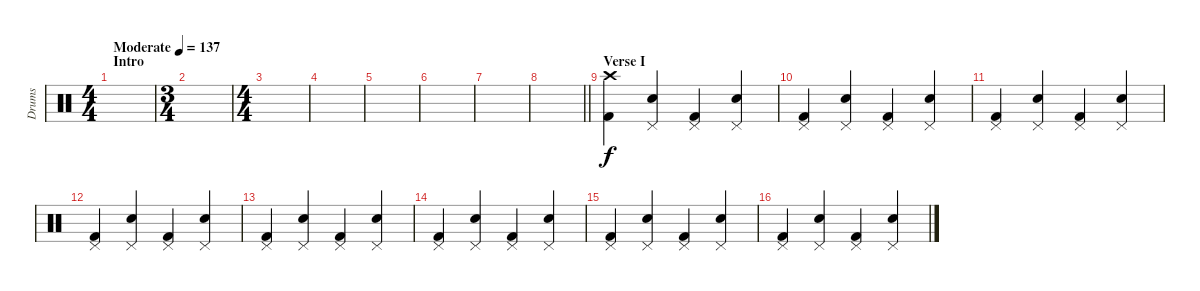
\track ("Drums" "Drums") {instrument percussion}
\staff {score}
\articulation defaults
\ts (4 4)
\section ("" "Intro")
\tempo (137 "Moderate")
\clef neutral
\ks c
|
\ts (3 4)
|
\ts (4 4)
|
|
|
|
|
\barLineRight lightlight
|
\section ("" "Verse I")
("Crash high (hit)" "Kick (hit) 2").4 ("Pedal Hi-Hat (hit)" "Electric Snare (hit)").4 ("Pedal Hi-Hat (hit)" "Kick (hit) 2").4 ("Pedal Hi-Hat (hit)" "Electric Snare (hit)").4 |
("Pedal Hi-Hat (hit)" "Kick (hit) 2").4 ("Pedal Hi-Hat (hit)" "Electric Snare (hit)").4 ("Pedal Hi-Hat (hit)" "Kick (hit) 2").4 ("Pedal Hi-Hat (hit)" "Electric Snare (hit)").4 |
("Pedal Hi-Hat (hit)" "Kick (hit) 2").4 ("Pedal Hi-Hat (hit)" "Electric Snare (hit)").4 ("Pedal Hi-Hat (hit)" "Kick (hit) 2").4 ("Pedal Hi-Hat (hit)" "Electric Snare (hit)").4 |
("Pedal Hi-Hat (hit)" "Kick (hit) 2").4 ("Pedal Hi-Hat (hit)" "Electric Snare (hit)").4 ("Pedal Hi-Hat (hit)" "Kick (hit) 2").4 ("Pedal Hi-Hat (hit)" "Electric Snare (hit)").4 |
("Pedal Hi-Hat (hit)" "Kick (hit) 2").4 ("Pedal Hi-Hat (hit)" "Electric Snare (hit)").4 ("Pedal Hi-Hat (hit)" "Kick (hit) 2").4 ("Pedal Hi-Hat (hit)" "Electric Snare (hit)").4 |
("Pedal Hi-Hat (hit)" "Kick (hit) 2").4 ("Pedal Hi-Hat (hit)" "Electric Snare (hit)").4 ("Pedal Hi-Hat (hit)" "Kick (hit) 2").4 ("Pedal Hi-Hat (hit)" "Electric Snare (hit)").4 |
("Pedal Hi-Hat (hit)" "Kick (hit) 2").4 ("Pedal Hi-Hat (hit)" "Electric Snare (hit)").4 ("Pedal Hi-Hat (hit)" "Kick (hit) 2").4 ("Pedal Hi-Hat (hit)" "Electric Snare (hit)").4 |
("Pedal Hi-Hat (hit)" "Kick (hit) 2").4 ("Pedal Hi-Hat (hit)" "Electric Snare (hit)").4 ("Pedal Hi-Hat (hit)" "Kick (hit) 2").4 ("Pedal Hi-Hat (hit)" "Electric Snare (hit)").4
